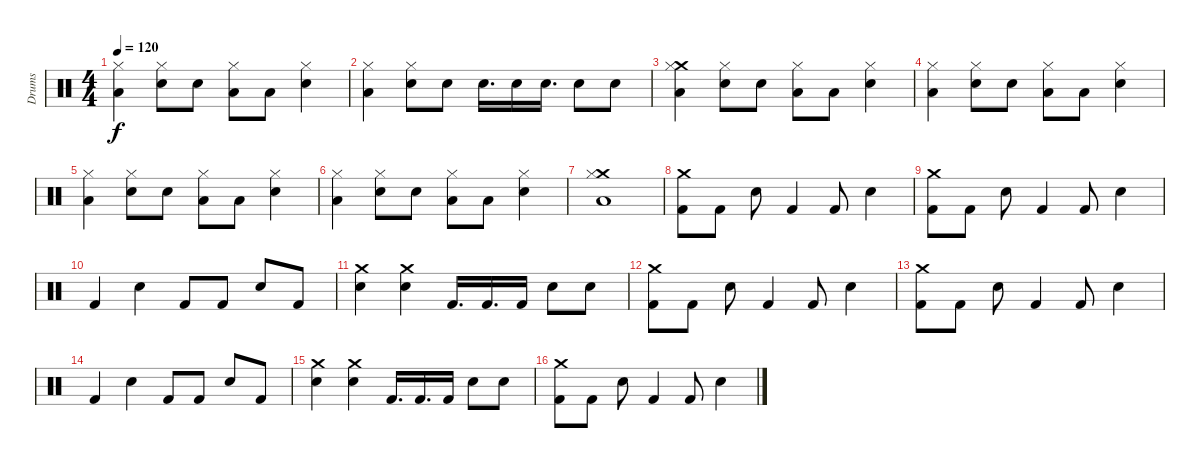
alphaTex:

\track ("Drums" "Drums") {instrument percussion}
\staff {score}
\articulation defaults
\ts (4 4)
\tempo 120
\clef neutral
\ks c
("Hi-Hat (closed)" "Low Floor Tom (hit)").4{dy f} ("Hi-Hat (closed)" "Electric Snare (hit)").8 "Electric Snare (hit)".8 ("Hi-Hat (closed)" "Low Floor Tom (hit)").8 "Low Floor Tom (hit)".8 ("Hi-Hat (closed)" "Electric Snare (hit)").4 |
("Hi-Hat (closed)" "Low Floor Tom (hit)").4 ("Hi-Hat (closed)" "Electric Snare (hit)").8 "Electric Snare (hit)".8 "Electric Snare (hit)".16{d} "Electric Snare (hit)".16 "Electric Snare (hit)".16{d} "Electric Snare (hit)".8 "Electric Snare (hit)".8 |
("Crash medium (hit)" "Hi-Hat (closed)" "Low Floor Tom (hit)").4 ("Hi-Hat (closed)" "Electric Snare (hit)").8 "Electric Snare (hit)".8 ("Hi-Hat (closed)" "Low Floor Tom (hit)").8 "Low Floor Tom (hit)".8 ("Hi-Hat (closed)" "Electric Snare (hit)").4 |
("Hi-Hat (closed)" "Low Floor Tom (hit)").4 ("Hi-Hat (closed)" "Electric Snare (hit)").8 "Electric Snare (hit)".8 ("Hi-Hat (closed)" "Low Floor Tom (hit)").8 "Low Floor Tom (hit)".8 ("Hi-Hat (closed)" "Electric Snare (hit)").4 |
("Hi-Hat (closed)" "Low Floor Tom (hit)").4 ("Hi-Hat (closed)" "Electric Snare (hit)").8 "Electric Snare (hit)".8 ("Hi-Hat (closed)" "Low Floor Tom (hit)").8 "Low Floor Tom (hit)".8 ("Hi-Hat (closed)" "Electric Snare (hit)").4 |
("Hi-Hat (closed)" "Low Floor Tom (hit)").4 ("Hi-Hat (closed)" "Electric Snare (hit)").8 "Electric Snare (hit)".8 ("Hi-Hat (closed)" "Low Floor Tom (hit)").8 "Low Floor Tom (hit)".8 ("Hi-Hat (closed)" "Electric Snare (hit)").4 |
("Crash medium (hit)" "Hi-Hat (closed)" "Low Floor Tom (hit)").1 |
("Crash medium (hit)" "Kick (hit) 2").8 "Kick (hit) 2".8 "Electric Snare (hit)".8 "Kick (hit) 2".4 "Kick (hit) 2".8 "Electric Snare (hit)".4 |
("Crash medium (hit)" "Kick (hit) 2").8 "Kick (hit) 2".8 "Electric Snare (hit)".8 "Kick (hit) 2".4 "Kick (hit) 2".8 "Electric Snare (hit)".4 |
"Kick (hit) 2".4 "Electric Snare (hit)".4 "Kick (hit) 2".8 "Kick (hit) 2".8 "Electric Snare (hit)".8 "Kick (hit) 2".8 |
("Crash medium (hit)" "Electric Snare (hit)").4 ("Crash medium (hit)" "Electric Snare (hit)").4 "Kick (hit) 2".16{d} "Kick (hit) 2".16{d} "Kick (hit) 2".16 "Electric Snare (hit)".8 "Electric Snare (hit)".8 |
("Crash medium (hit)" "Kick (hit) 2").8 "Kick (hit) 2".8 "Electric Snare (hit)".8 "Kick (hit) 2".4 "Kick (hit) 2".8 "Electric Snare (hit)".4 |
("Crash medium (hit)" "Kick (hit) 2").8 "Kick (hit) 2".8 "Electric Snare (hit)".8 "Kick (hit) 2".4 "Kick (hit) 2".8 "Electric Snare (hit)".4 |
"Kick (hit) 2".4 "Electric Snare (hit)".4 "Kick (hit) 2".8 "Kick (hit) 2".8 "Electric Snare (hit)".8 "Kick (hit) 2".8 |
("Crash medium (hit)" "Electric Snare (hit)").4 ("Crash medium (hit)" "Electric Snare (hit)").4 "Kick (hit) 2".16{d} "Kick (hit) 2".16{d} "Kick (hit) 2".16 "Electric Snare (hit)".8 "Electric Snare (hit)".8 |
("Crash medium (hit)" "Kick (hit) 2").8 "Kick (hit) 2".8 "Electric Snare (hit)".8 "Kick (hit) 2".4 "Kick (hit) 2".8 "Electric Snare (hit)".4
